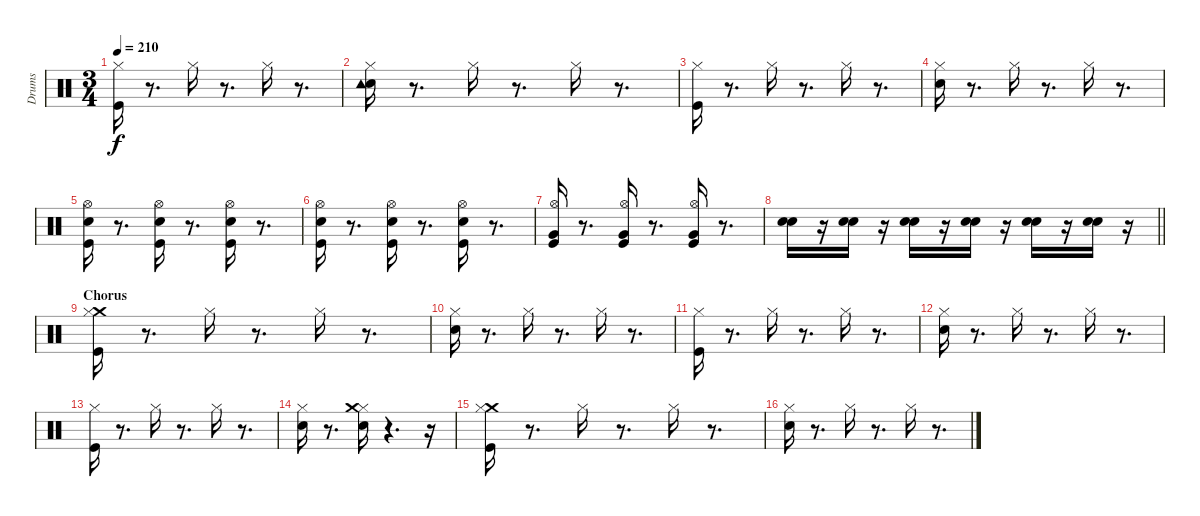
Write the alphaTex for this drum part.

\track ("Drums" "Drums") {instrument percussion}
\staff {score}
\articulation defaults
\ts (3 4)
\tempo 210
\clef neutral
\ks c
("Kick (hit)" "Hi-Hat (closed)").16{dy f} r.8{d} "Hi-Hat (closed)".16 r.8{d} "Hi-Hat (closed)".16 r.8{d} |
("Hi-Hat (closed)" "Electric Snare (hit)" "Tambourine (hit)").16 r.8{d} "Hi-Hat (closed)".16 r.8{d} "Hi-Hat (closed)".16 r.8{d} |
("Kick (hit)" "Hi-Hat (closed)").16 r.8{d} "Hi-Hat (closed)".16 r.8{d} "Hi-Hat (closed)".16 r.8{d} |
("Hi-Hat (closed)" "Electric Snare (hit)").16 r.8{d} "Hi-Hat (closed)".16 r.8{d} "Hi-Hat (closed)".16 r.8{d} |
("Electric Snare (hit)" "Kick (hit)" "Hi-Hat (open)").16 r.8{d} ("Electric Snare (hit)" "Kick (hit)" "Hi-Hat (open)").16 r.8{d} ("Electric Snare (hit)" "Kick (hit)" "Hi-Hat (open)").16 r.8{d} |
("Electric Snare (hit)" "Kick (hit)" "Hi-Hat (open)").16 r.8{d} ("Electric Snare (hit)" "Kick (hit)" "Hi-Hat (open)").16 r.8{d} ("Electric Snare (hit)" "Kick (hit)" "Hi-Hat (open)").16 r.8{d} |
("Kick (hit)" "Hi-Hat (open)" "Very Low Tom (hit)").16 r.8{d} ("Kick (hit)" "Hi-Hat (open)" "Very Low Tom (hit)").16 r.8{d} ("Kick (hit)" "Hi-Hat (open)" "Very Low Tom (hit)").16 r.8{d} |
\barLineRight lightlight
("Snare (hit) 2" "Electric Snare (hit)").16 r.16 ("Snare (hit) 2" "Electric Snare (hit)").16 r.16 ("Snare (hit) 2" "Electric Snare (hit)").16 r.16 ("Snare (hit) 2" "Electric Snare (hit)").16 r.16 ("Snare (hit) 2" "Electric Snare (hit)").16 r.16 ("Snare (hit) 2" "Electric Snare (hit)").16 r.16 |
\section ("" "Chorus")
("Kick (hit)" "Crash medium (hit)" "Hi-Hat (closed)").16 r.8{d} "Hi-Hat (closed)".16 r.8{d} "Hi-Hat (closed)".16 r.8{d} |
("Hi-Hat (closed)" "Electric Snare (hit)").16 r.8{d} "Hi-Hat (closed)".16 r.8{d} "Hi-Hat (closed)".16 r.8{d} |
("Kick (hit)" "Hi-Hat (closed)").16 r.8{d} "Hi-Hat (closed)".16 r.8{d} "Hi-Hat (closed)".16 r.8{d} |
("Hi-Hat (closed)" "Electric Snare (hit)").16 r.8{d} "Hi-Hat (closed)".16 r.8{d} "Hi-Hat (closed)".16 r.8{d} |
("Kick (hit)" "Hi-Hat (closed)").16 r.8{d} "Hi-Hat (closed)".16 r.8{d} "Hi-Hat (closed)".16 r.8{d} |
("Hi-Hat (closed)" "Electric Snare (hit)").16 r.8{d} ("Hi-Hat (closed)" "Electric Snare (hit)" "Crash medium (hit)").16 r.4{d} r.16 |
("Kick (hit)" "Crash medium (hit)" "Hi-Hat (closed)").16 r.8{d} "Hi-Hat (closed)".16 r.8{d} "Hi-Hat (closed)".16 r.8{d} |
("Hi-Hat (closed)" "Electric Snare (hit)").16 r.8{d} "Hi-Hat (closed)".16 r.8{d} "Hi-Hat (closed)".16 r.8{d}
